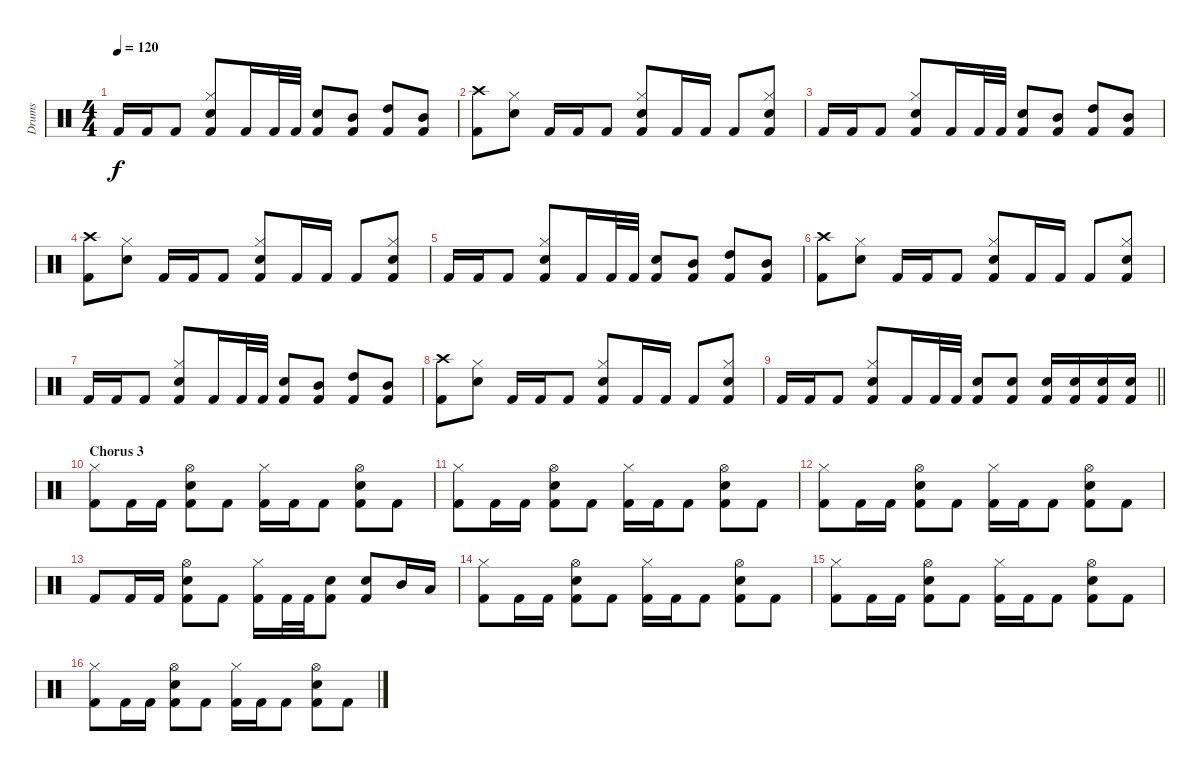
\track ("Drums" "Drums") {instrument percussion}
\staff {score}
\articulation defaults
\ts (4 4)
\tempo 120
\clef neutral
\ks c "Kick (hit) 2".16{dy f} "Kick (hit) 2".16 "Kick (hit) 2".8
("Hi-Hat (closed)" "Electric Snare (hit)" "Kick (hit) 2").8 "Kick (hit) 2".16 "Kick (hit) 2".32 "Kick (hit) 2".32 ("Electric Snare (hit)" "Kick (hit) 2").8 ("Mid Tom (hit)" "Kick (hit) 2").8 ("High Tom (hit)" "Kick (hit) 2").8 ("Mid Tom (hit)" "Kick (hit) 2").8 |
("Crash high (hit)" "Kick (hit) 2").8 ("Hi-Hat (closed)" "Electric Snare (hit)").8 "Kick (hit) 2".16 "Kick (hit) 2".16 "Kick (hit) 2".8 ("Electric Snare (hit)" "Hi-Hat (closed)" "Kick (hit) 2").8 "Kick (hit) 2".16 "Kick (hit) 2".16 "Kick (hit) 2".8 ("Electric Snare (hit)" "Hi-Hat (closed)" "Kick (hit) 2").8 |
"Kick (hit) 2".16 "Kick (hit) 2".16 "Kick (hit) 2".8 ("Hi-Hat (closed)" "Electric Snare (hit)" "Kick (hit) 2").8 "Kick (hit) 2".16 "Kick (hit) 2".32 "Kick (hit) 2".32 ("Electric Snare (hit)" "Kick (hit) 2").8 ("Mid Tom (hit)" "Kick (hit) 2").8 ("High Tom (hit)" "Kick (hit) 2").8 ("Mid Tom (hit)" "Kick (hit) 2").8 |
("Crash high (hit)" "Kick (hit) 2").8 ("Hi-Hat (closed)" "Electric Snare (hit)").8 "Kick (hit) 2".16 "Kick (hit) 2".16 "Kick (hit) 2".8 ("Electric Snare (hit)" "Hi-Hat (closed)" "Kick (hit) 2").8 "Kick (hit) 2".16 "Kick (hit) 2".16 "Kick (hit) 2".8 ("Electric Snare (hit)" "Hi-Hat (closed)" "Kick (hit) 2").8 |
"Kick (hit) 2".16 "Kick (hit) 2".16 "Kick (hit) 2".8 ("Hi-Hat (closed)" "Electric Snare (hit)" "Kick (hit) 2").8 "Kick (hit) 2".16 "Kick (hit) 2".32 "Kick (hit) 2".32 ("Electric Snare (hit)" "Kick (hit) 2").8 ("Mid Tom (hit)" "Kick (hit) 2").8 ("High Tom (hit)" "Kick (hit) 2").8 ("Mid Tom (hit)" "Kick (hit) 2").8 |
("Crash high (hit)" "Kick (hit) 2").8 ("Hi-Hat (closed)" "Electric Snare (hit)").8 "Kick (hit) 2".16 "Kick (hit) 2".16 "Kick (hit) 2".8 ("Electric Snare (hit)" "Hi-Hat (closed)" "Kick (hit) 2").8 "Kick (hit) 2".16 "Kick (hit) 2".16 "Kick (hit) 2".8 ("Electric Snare (hit)" "Hi-Hat (closed)" "Kick (hit) 2").8 |
"Kick (hit) 2".16 "Kick (hit) 2".16 "Kick (hit) 2".8 ("Hi-Hat (closed)" "Electric Snare (hit)" "Kick (hit) 2").8 "Kick (hit) 2".16 "Kick (hit) 2".32 "Kick (hit) 2".32 ("Electric Snare (hit)" "Kick (hit) 2").8 ("Mid Tom (hit)" "Kick (hit) 2").8 ("High Tom (hit)" "Kick (hit) 2").8 ("Mid Tom (hit)" "Kick (hit) 2").8 |
("Crash high (hit)" "Kick (hit) 2").8 ("Hi-Hat (closed)" "Electric Snare (hit)").8 "Kick (hit) 2".16 "Kick (hit) 2".16 "Kick (hit) 2".8 ("Electric Snare (hit)" "Hi-Hat (closed)" "Kick (hit) 2").8 "Kick (hit) 2".16 "Kick (hit) 2".16 "Kick (hit) 2".8 ("Electric Snare (hit)" "Hi-Hat (closed)" "Kick (hit) 2").8 |
\barLineRight lightlight "Kick (hit) 2".16 "Kick (hit) 2".16 "Kick (hit) 2".8
("Hi-Hat (closed)" "Electric Snare (hit)" "Kick (hit) 2").8 "Kick (hit) 2".16 "Kick (hit) 2".32 "Kick (hit) 2".32 ("Electric Snare (hit)" "Kick (hit) 2").8 ("Electric Snare (hit)" "Kick (hit) 2").8 ("Electric Snare (hit)" "Kick (hit) 2").16 ("Electric Snare (hit)" "Kick (hit) 2").16 ("Electric Snare (hit)" "Kick (hit) 2").16 ("Electric Snare (hit)" "Kick (hit) 2").16 |
\section ("" "Chorus 3")
("Hi-Hat (closed)" "Kick (hit) 2").8 "Kick (hit) 2".16 "Kick (hit) 2".16 ("Hi-Hat (open)" "Electric Snare (hit)" "Kick (hit) 2").8 "Kick (hit) 2".8 ("Hi-Hat (closed)" "Kick (hit) 2").16 "Kick (hit) 2".16 "Kick (hit) 2".8 ("Hi-Hat (open)" "Electric Snare (hit)" "Kick (hit) 2").8 "Kick (hit) 2".8 |
("Hi-Hat (closed)" "Kick (hit) 2").8 "Kick (hit) 2".16 "Kick (hit) 2".16 ("Hi-Hat (open)" "Electric Snare (hit)" "Kick (hit) 2").8 "Kick (hit) 2".8 ("Hi-Hat (closed)" "Kick (hit) 2").16 "Kick (hit) 2".16 "Kick (hit) 2".8 ("Hi-Hat (open)" "Electric Snare (hit)" "Kick (hit) 2").8 "Kick (hit) 2".8 |
("Hi-Hat (closed)" "Kick (hit) 2").8 "Kick (hit) 2".16 "Kick (hit) 2".16 ("Hi-Hat (open)" "Electric Snare (hit)" "Kick (hit) 2").8 "Kick (hit) 2".8 ("Hi-Hat (closed)" "Kick (hit) 2").16 "Kick (hit) 2".16 "Kick (hit) 2".8 ("Hi-Hat (open)" "Electric Snare (hit)" "Kick (hit) 2").8 "Kick (hit) 2".8 |
"Kick (hit) 2".8 "Kick (hit) 2".16 "Kick (hit) 2".16 ("Hi-Hat (open)" "Electric Snare (hit)" "Kick (hit) 2").8 "Kick (hit) 2".8 ("Hi-Hat (closed)" "Kick (hit) 2").16 "Kick (hit) 2".32 "Kick (hit) 2".32 ("Electric Snare (hit)" "Kick (hit) 2").8 ("Electric Snare (hit)" "Kick (hit) 2").8 "Mid Tom (hit)".16 "Low Tom (hit)".16 |
("Hi-Hat (closed)" "Kick (hit) 2").8 "Kick (hit) 2".16 "Kick (hit) 2".16 ("Hi-Hat (open)" "Electric Snare (hit)" "Kick (hit) 2").8 "Kick (hit) 2".8 ("Hi-Hat (closed)" "Kick (hit) 2").16 "Kick (hit) 2".16 "Kick (hit) 2".8 ("Hi-Hat (open)" "Electric Snare (hit)" "Kick (hit) 2").8 "Kick (hit) 2".8 |
("Hi-Hat (closed)" "Kick (hit) 2").8 "Kick (hit) 2".16 "Kick (hit) 2".16 ("Hi-Hat (open)" "Electric Snare (hit)" "Kick (hit) 2").8 "Kick (hit) 2".8 ("Hi-Hat (closed)" "Kick (hit) 2").16 "Kick (hit) 2".16 "Kick (hit) 2".8 ("Hi-Hat (open)" "Electric Snare (hit)" "Kick (hit) 2").8 "Kick (hit) 2".8 |
("Hi-Hat (closed)" "Kick (hit) 2").8 "Kick (hit) 2".16 "Kick (hit) 2".16 ("Hi-Hat (open)" "Electric Snare (hit)" "Kick (hit) 2").8 "Kick (hit) 2".8 ("Hi-Hat (closed)" "Kick (hit) 2").16 "Kick (hit) 2".16 "Kick (hit) 2".8 ("Hi-Hat (open)" "Electric Snare (hit)" "Kick (hit) 2").8 "Kick (hit) 2".8
